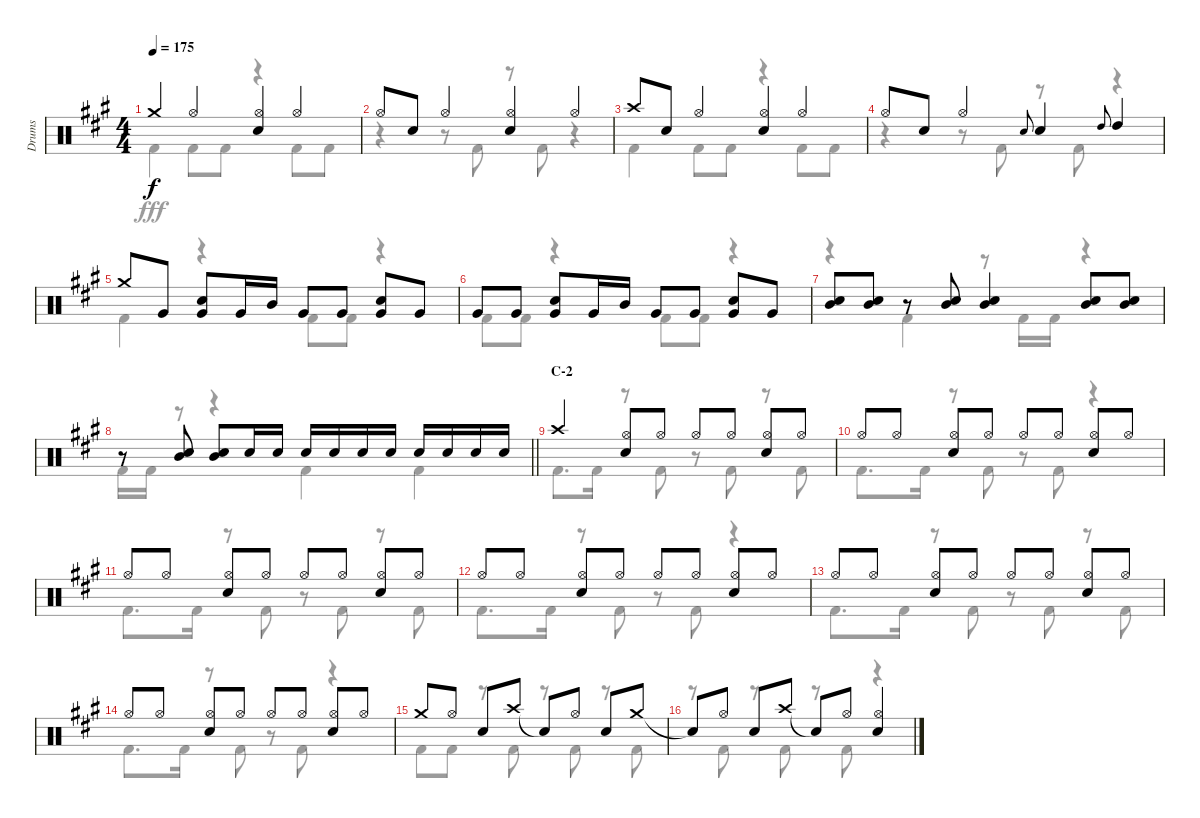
\track ("Drums" "Drums") {instrument percussion}
\staff {score}
\articulation defaults
\voice
\ts (4 4)
\tempo 175
\clef neutral
\ks a "Crash medium (hit)".4{dy f} "Hi-Hat (open)".4
("Hi-Hat (open)" "Snare (hit) 2").4 "Hi-Hat (open)".4 |
"Hi-Hat (open)".8 "Snare (hit) 2".8 "Hi-Hat (open)".4 ("Hi-Hat (open)" "Snare (hit) 2").4 "Hi-Hat (open)".4 |
"Crash high (hit)".8 "Snare (hit) 2".8 "Hi-Hat (open)".4 ("Hi-Hat (open)" "Snare (hit) 2").4 "Hi-Hat (open)".4 |
"Hi-Hat (open)".8 "Snare (hit) 2".8 "Hi-Hat (open)".4 "Snare (hit) 2".8{gr onbeat} "Snare (hit) 2".4 "High Tom (hit)".8{gr onbeat} "High Tom (hit)".4 |
"Crash medium (hit)".8 "Very Low Tom (hit)".8 ("Snare (hit) 2" "Very Low Tom (hit)").8 "Very Low Tom (hit)".16 "Mid Tom (hit)".16 "Very Low Tom (hit)".8 "Very Low Tom (hit)".8 ("Snare (hit) 2" "Very Low Tom (hit)").8 "Very Low Tom (hit)".8 |
"Very Low Tom (hit)".8 "Very Low Tom (hit)".8 ("Snare (hit) 2" "Very Low Tom (hit)").8 "Very Low Tom (hit)".16 "Mid Tom (hit)".16 "Very Low Tom (hit)".8 "Very Low Tom (hit)".8 ("Snare (hit) 2" "Very Low Tom (hit)").8 "Very Low Tom (hit)".8 |
("Mid Tom (hit)" "Snare (hit) 2").8 ("Mid Tom (hit)" "Snare (hit) 2").8 r.8 ("Mid Tom (hit)" "Snare (hit) 2").8 ("Mid Tom (hit)" "Snare (hit) 2").4 ("Mid Tom (hit)" "Snare (hit) 2").8 ("Mid Tom (hit)" "Snare (hit) 2").8 |
\barLineRight lightlight
r.8 ("Mid Tom (hit)" "Snare (hit) 2").8 ("Mid Tom (hit)" "Snare (hit) 2").8 "Snare (hit) 2".16 "Snare (hit) 2".16 "Snare (hit) 2".16 "Snare (hit) 2".16 "Snare (hit) 2".16 "Snare (hit) 2".16 "Snare (hit) 2".16 "Snare (hit) 2".16 "Snare (hit) 2".16 "Snare (hit) 2".16 |
\section ("" "C-2")
"Crash high (hit)".4 ("Hi-Hat (open)" "Snare (hit) 2").8 "Hi-Hat (open)".8 "Hi-Hat (open)".8 "Hi-Hat (open)".8 ("Hi-Hat (open)" "Snare (hit) 2").8 "Hi-Hat (open)".8 |
"Hi-Hat (open)".8 "Hi-Hat (open)".8 ("Hi-Hat (open)" "Snare (hit) 2").8 "Hi-Hat (open)".8 "Hi-Hat (open)".8 "Hi-Hat (open)".8 ("Hi-Hat (open)" "Snare (hit) 2").8 "Hi-Hat (open)".8 |
"Hi-Hat (open)".8 "Hi-Hat (open)".8 ("Hi-Hat (open)" "Snare (hit) 2").8 "Hi-Hat (open)".8 "Hi-Hat (open)".8 "Hi-Hat (open)".8 ("Hi-Hat (open)" "Snare (hit) 2").8 "Hi-Hat (open)".8 |
"Hi-Hat (open)".8 "Hi-Hat (open)".8 ("Hi-Hat (open)" "Snare (hit) 2").8 "Hi-Hat (open)".8 "Hi-Hat (open)".8 "Hi-Hat (open)".8 ("Hi-Hat (open)" "Snare (hit) 2").8 "Hi-Hat (open)".8 |
"Hi-Hat (open)".8 "Hi-Hat (open)".8 ("Hi-Hat (open)" "Snare (hit) 2").8 "Hi-Hat (open)".8 "Hi-Hat (open)".8 "Hi-Hat (open)".8 ("Hi-Hat (open)" "Snare (hit) 2").8 "Hi-Hat (open)".8 |
"Hi-Hat (open)".8 "Hi-Hat (open)".8 ("Hi-Hat (open)" "Snare (hit) 2").8 "Hi-Hat (open)".8 "Hi-Hat (open)".8 "Hi-Hat (open)".8 ("Hi-Hat (open)" "Snare (hit) 2").8 "Hi-Hat (open)".8 |
"Crash medium (hit)".8 "Hi-Hat (open)".8 "Snare (hit) 2".8 "Crash high (hit)".8 "Snare (hit)"{t}.8 "Hi-Hat (open)".8 "Snare (hit) 2".8 "Crash medium (hit)".8 |
"Snare (hit)"{t}.8 "Hi-Hat (open)".8 "Snare (hit) 2".8 "Crash high (hit)".8 "Snare (hit)"{t}.8 "Hi-Hat (open)".8 ("Hi-Hat (open)" "Snare (hit) 2").4
\voice
\clef neutral
\ottava regular
\simile none
\ks a "Kick (hit) 2".4{dy fff} "Kick (hit) 2".8 "Kick (hit) 2".8
r.4 "Kick (hit) 2".8 "Kick (hit) 2".8 |
r.4 r.8 "Kick (hit) 2".8 r.8 "Kick (hit) 2".8 r.4 |
"Kick (hit) 2".4 "Kick (hit) 2".8 "Kick (hit) 2".8 r.4 "Kick (hit) 2".8 "Kick (hit) 2".8 |
r.4 r.8 "Kick (hit) 2".8 r.8 "Kick (hit) 2".8 r.4 |
"Kick (hit) 2".4 r.4 "Kick (hit) 2".8 "Kick (hit) 2".8 r.4 |
"Kick (hit) 2".8 "Kick (hit) 2".8 r.4 "Kick (hit) 2".8 "Kick (hit) 2".8 r.4 |
r.4 "Kick (hit) 2".4 r.8 "Kick (hit) 2".16 "Kick (hit) 2".16 r.4 |
\barLineRight lightlight "Kick (hit) 2".16 "Kick (hit) 2".16
r.8 r.4 "Kick (hit) 2".4 "Kick (hit) 2".4 |
"Kick (hit) 2".8{d} "Kick (hit) 2".16 r.8 "Kick (hit) 2".8 r.8 "Kick (hit) 2".8 r.8 "Kick (hit) 2".8 |
"Kick (hit) 2".8{d} "Kick (hit) 2".16 r.8 "Kick (hit) 2".8 r.8 "Kick (hit) 2".8 r.4 |
"Kick (hit) 2".8{d} "Kick (hit) 2".16 r.8 "Kick (hit) 2".8 r.8 "Kick (hit) 2".8 r.8 "Kick (hit) 2".8 |
"Kick (hit) 2".8{d} "Kick (hit) 2".16 r.8 "Kick (hit) 2".8 r.8 "Kick (hit) 2".8 r.4 |
"Kick (hit) 2".8{d} "Kick (hit) 2".16 r.8 "Kick (hit) 2".8 r.8 "Kick (hit) 2".8 r.8 "Kick (hit) 2".8 |
"Kick (hit) 2".8{d} "Kick (hit) 2".16 r.8 "Kick (hit) 2".8 r.8 "Kick (hit) 2".8 r.4 |
"Kick (hit) 2".8 "Kick (hit) 2".8 r.8 "Kick (hit) 2".8 r.8 "Kick (hit) 2".8 r.8 "Kick (hit) 2".8 |
r.8 "Kick (hit) 2".8 r.8 "Kick (hit) 2".8 r.8 "Kick (hit) 2".8 r.4
